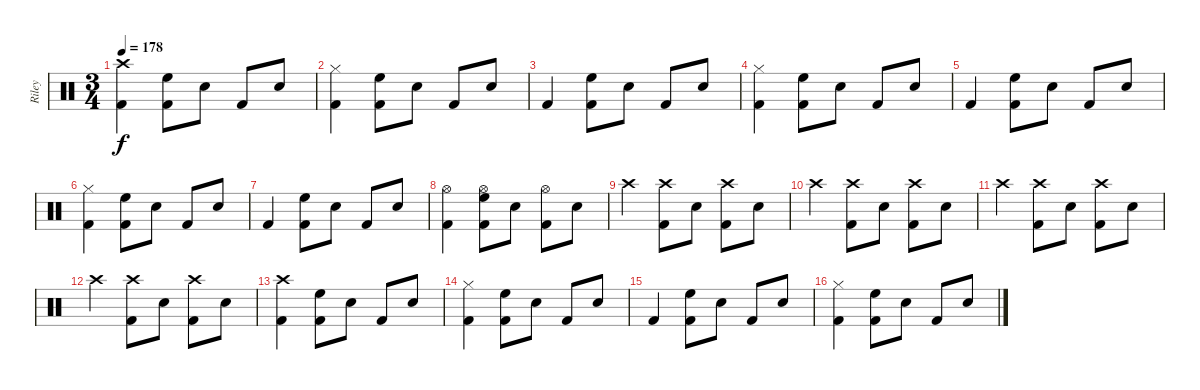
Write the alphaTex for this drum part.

\track ("Riley" "Riley") {instrument percussion}
\staff {score}
\articulation defaults
\ts (3 4)
\tempo 178
\clef neutral
\ks c
("Crash high (hit)" "Kick (hit) 2").4{dy f} ("High Floor Tom (hit)" "Kick (hit) 2").8 "Snare (hit) 2".8 "Kick (hit) 2".8 "Snare (hit) 2".8 |
("Hi-Hat (closed)" "Kick (hit) 2").4 ("High Floor Tom (hit)" "Kick (hit) 2").8 "Snare (hit) 2".8 "Kick (hit) 2".8 "Snare (hit) 2".8 |
"Kick (hit) 2".4 ("High Floor Tom (hit)" "Kick (hit) 2").8 "Snare (hit) 2".8 "Kick (hit) 2".8 "Snare (hit) 2".8 |
("Hi-Hat (closed)" "Kick (hit) 2").4 ("High Floor Tom (hit)" "Kick (hit) 2").8 "Snare (hit) 2".8 "Kick (hit) 2".8 "Snare (hit) 2".8 |
"Kick (hit) 2".4 ("High Floor Tom (hit)" "Kick (hit) 2").8 "Snare (hit) 2".8 "Kick (hit) 2".8 "Snare (hit) 2".8 |
("Hi-Hat (closed)" "Kick (hit) 2").4 ("High Floor Tom (hit)" "Kick (hit) 2").8 "Snare (hit) 2".8 "Kick (hit) 2".8 "Snare (hit) 2".8 |
"Kick (hit) 2".4 ("High Floor Tom (hit)" "Kick (hit) 2").8 "Snare (hit) 2".8 "Kick (hit) 2".8 "Snare (hit) 2".8 |
("Hi-Hat (open)" "Kick (hit) 2").4 ("Hi-Hat (open)" "High Floor Tom (hit)" "Kick (hit) 2").8 "Snare (hit) 2".8 ("Hi-Hat (open)" "Kick (hit) 2").8 "Snare (hit) 2".8 |
"Crash high (hit)".4 ("Crash high (hit)" "Kick (hit) 2").8 "Snare (hit) 2".8 ("Crash high (hit)" "Kick (hit) 2").8 "Snare (hit) 2".8 |
"Crash high (hit)".4 ("Crash high (hit)" "Kick (hit) 2").8 "Snare (hit) 2".8 ("Crash high (hit)" "Kick (hit) 2").8 "Snare (hit) 2".8 |
"Crash high (hit)".4 ("Crash high (hit)" "Kick (hit) 2").8 "Snare (hit) 2".8 ("Crash high (hit)" "Kick (hit) 2").8 "Snare (hit) 2".8 |
"Crash high (hit)".4 ("Crash high (hit)" "Kick (hit) 2").8 "Snare (hit) 2".8 ("Crash high (hit)" "Kick (hit) 2").8 "Snare (hit) 2".8 |
("Crash high (hit)" "Kick (hit) 2").4 ("High Floor Tom (hit)" "Kick (hit) 2").8 "Snare (hit) 2".8 "Kick (hit) 2".8 "Snare (hit) 2".8 |
("Hi-Hat (closed)" "Kick (hit) 2").4 ("High Floor Tom (hit)" "Kick (hit) 2").8 "Snare (hit) 2".8 "Kick (hit) 2".8 "Snare (hit) 2".8 |
"Kick (hit) 2".4 ("High Floor Tom (hit)" "Kick (hit) 2").8 "Snare (hit) 2".8 "Kick (hit) 2".8 "Snare (hit) 2".8 |
("Hi-Hat (closed)" "Kick (hit) 2").4 ("High Floor Tom (hit)" "Kick (hit) 2").8 "Snare (hit) 2".8 "Kick (hit) 2".8 "Snare (hit) 2".8
